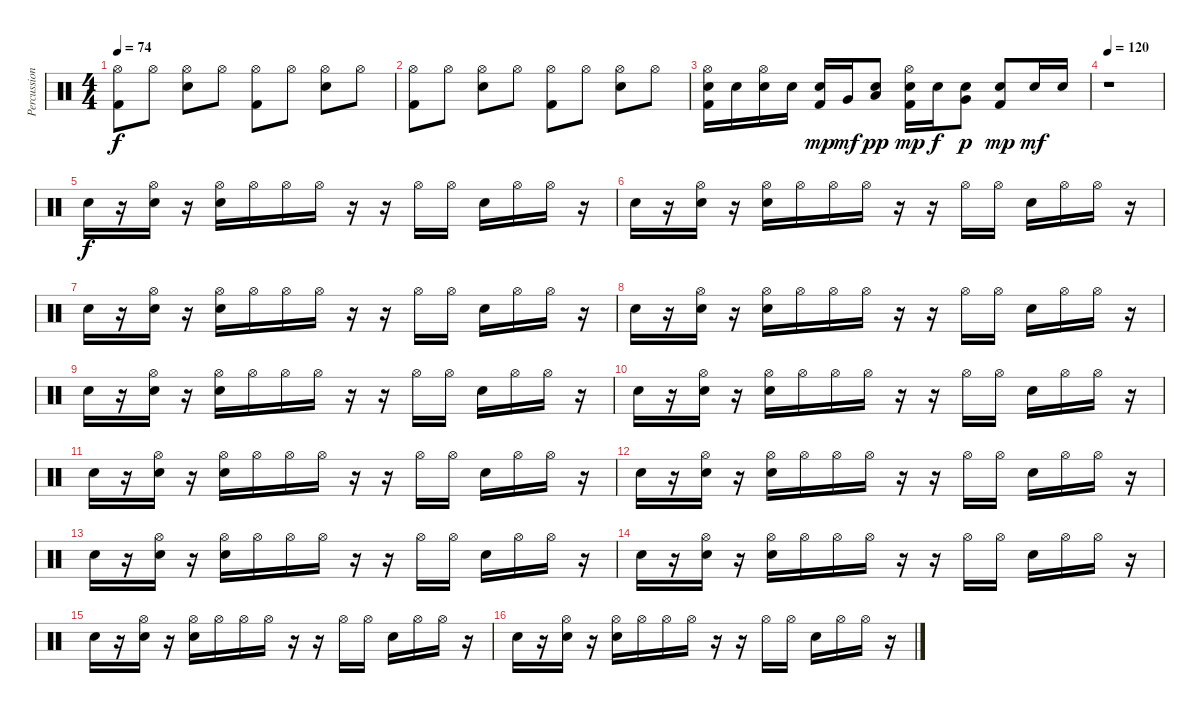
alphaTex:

\track ("Percussion" "Percussion") {instrument percussion}
\staff {score}
\articulation defaults
\ts (4 4)
\tempo 74
\clef neutral
\ks c
("Hi-Hat (open)" "Kick (hit) 2").8{dy f} "Hi-Hat (open)".8 ("Hi-Hat (open)" "Electric Snare (hit)").8 "Hi-Hat (open)".8 ("Hi-Hat (open)" "Kick (hit) 2").8 "Hi-Hat (open)".8 ("Hi-Hat (open)" "Electric Snare (hit)").8 "Hi-Hat (open)".8 |
("Hi-Hat (open)" "Kick (hit) 2").8 "Hi-Hat (open)".8 ("Hi-Hat (open)" "Electric Snare (hit)").8 "Hi-Hat (open)".8 ("Hi-Hat (open)" "Kick (hit) 2").8 "Hi-Hat (open)".8 ("Hi-Hat (open)" "Electric Snare (hit)").8 "Hi-Hat (open)".8 |
("Electric Snare (hit)" "Hi-Hat (open)" "Kick (hit) 2").16 "Electric Snare (hit)".16 ("Electric Snare (hit)" "Hi-Hat (open)").16 "Electric Snare (hit)".16 ("Electric Snare (hit)" "Kick (hit) 2").16{dy mp} "Very Low Tom (hit)".16{dy mf} ("Low Tom (hit)" "Electric Snare (hit)").8{dy pp} ("Electric Snare (hit)" "Hi-Hat (open)" "Kick (hit) 2").16{dy mp} "Electric Snare (hit)".16{dy f} ("Very Low Tom (hit)" "Electric Snare (hit)").8{dy p} ("Electric Snare (hit)" "Kick (hit) 2").8{dy mp} "Electric Snare (hit)".16{dy mf} "Electric Snare (hit)".16 |
\tempo 120
r.1 |
"Snare (hit) 2".16{dy f} r.16 ("Hi-Hat (open)" "Snare (hit) 2").16 r.16 ("Hi-Hat (open)" "Electric Snare (hit)").16 "Hi-Hat (open)".16 "Hi-Hat (open)".16 "Hi-Hat (open)".16 r.16 r.16 "Hi-Hat (open)".16 "Hi-Hat (open)".16 "Electric Snare (hit)".16 "Hi-Hat (open)".16 "Hi-Hat (open)".16 r.16 |
"Snare (hit) 2".16 r.16 ("Hi-Hat (open)" "Snare (hit) 2").16 r.16 ("Hi-Hat (open)" "Electric Snare (hit)").16 "Hi-Hat (open)".16 "Hi-Hat (open)".16 "Hi-Hat (open)".16 r.16 r.16 "Hi-Hat (open)".16 "Hi-Hat (open)".16 "Electric Snare (hit)".16 "Hi-Hat (open)".16 "Hi-Hat (open)".16 r.16 |
"Snare (hit) 2".16 r.16 ("Hi-Hat (open)" "Snare (hit) 2").16 r.16 ("Hi-Hat (open)" "Electric Snare (hit)").16 "Hi-Hat (open)".16 "Hi-Hat (open)".16 "Hi-Hat (open)".16 r.16 r.16 "Hi-Hat (open)".16 "Hi-Hat (open)".16 "Electric Snare (hit)".16 "Hi-Hat (open)".16 "Hi-Hat (open)".16 r.16 |
"Snare (hit) 2".16 r.16 ("Hi-Hat (open)" "Snare (hit) 2").16 r.16 ("Hi-Hat (open)" "Electric Snare (hit)").16 "Hi-Hat (open)".16 "Hi-Hat (open)".16 "Hi-Hat (open)".16 r.16 r.16 "Hi-Hat (open)".16 "Hi-Hat (open)".16 "Electric Snare (hit)".16 "Hi-Hat (open)".16 "Hi-Hat (open)".16 r.16 |
"Snare (hit) 2".16 r.16 ("Hi-Hat (open)" "Snare (hit) 2").16 r.16 ("Hi-Hat (open)" "Electric Snare (hit)").16 "Hi-Hat (open)".16 "Hi-Hat (open)".16 "Hi-Hat (open)".16 r.16 r.16 "Hi-Hat (open)".16 "Hi-Hat (open)".16 "Electric Snare (hit)".16 "Hi-Hat (open)".16 "Hi-Hat (open)".16 r.16 |
"Snare (hit) 2".16 r.16 ("Hi-Hat (open)" "Snare (hit) 2").16 r.16 ("Hi-Hat (open)" "Electric Snare (hit)").16 "Hi-Hat (open)".16 "Hi-Hat (open)".16 "Hi-Hat (open)".16 r.16 r.16 "Hi-Hat (open)".16 "Hi-Hat (open)".16 "Electric Snare (hit)".16 "Hi-Hat (open)".16 "Hi-Hat (open)".16 r.16 |
"Snare (hit) 2".16 r.16 ("Hi-Hat (open)" "Snare (hit) 2").16 r.16 ("Hi-Hat (open)" "Electric Snare (hit)").16 "Hi-Hat (open)".16 "Hi-Hat (open)".16 "Hi-Hat (open)".16 r.16 r.16 "Hi-Hat (open)".16 "Hi-Hat (open)".16 "Electric Snare (hit)".16 "Hi-Hat (open)".16 "Hi-Hat (open)".16 r.16 |
"Snare (hit) 2".16 r.16 ("Hi-Hat (open)" "Snare (hit) 2").16 r.16 ("Hi-Hat (open)" "Electric Snare (hit)").16 "Hi-Hat (open)".16 "Hi-Hat (open)".16 "Hi-Hat (open)".16 r.16 r.16 "Hi-Hat (open)".16 "Hi-Hat (open)".16 "Electric Snare (hit)".16 "Hi-Hat (open)".16 "Hi-Hat (open)".16 r.16 |
"Snare (hit) 2".16 r.16 ("Hi-Hat (open)" "Snare (hit) 2").16 r.16 ("Hi-Hat (open)" "Electric Snare (hit)").16 "Hi-Hat (open)".16 "Hi-Hat (open)".16 "Hi-Hat (open)".16 r.16 r.16 "Hi-Hat (open)".16 "Hi-Hat (open)".16 "Electric Snare (hit)".16 "Hi-Hat (open)".16 "Hi-Hat (open)".16 r.16 |
"Snare (hit) 2".16 r.16 ("Hi-Hat (open)" "Snare (hit) 2").16 r.16 ("Hi-Hat (open)" "Electric Snare (hit)").16 "Hi-Hat (open)".16 "Hi-Hat (open)".16 "Hi-Hat (open)".16 r.16 r.16 "Hi-Hat (open)".16 "Hi-Hat (open)".16 "Electric Snare (hit)".16 "Hi-Hat (open)".16 "Hi-Hat (open)".16 r.16 |
"Snare (hit) 2".16 r.16 ("Hi-Hat (open)" "Snare (hit) 2").16 r.16 ("Hi-Hat (open)" "Electric Snare (hit)").16 "Hi-Hat (open)".16 "Hi-Hat (open)".16 "Hi-Hat (open)".16 r.16 r.16 "Hi-Hat (open)".16 "Hi-Hat (open)".16 "Electric Snare (hit)".16 "Hi-Hat (open)".16 "Hi-Hat (open)".16 r.16 |
"Snare (hit) 2".16 r.16 ("Hi-Hat (open)" "Snare (hit) 2").16 r.16 ("Hi-Hat (open)" "Electric Snare (hit)").16 "Hi-Hat (open)".16 "Hi-Hat (open)".16 "Hi-Hat (open)".16 r.16 r.16 "Hi-Hat (open)".16 "Hi-Hat (open)".16 "Electric Snare (hit)".16 "Hi-Hat (open)".16 "Hi-Hat (open)".16 r.16
